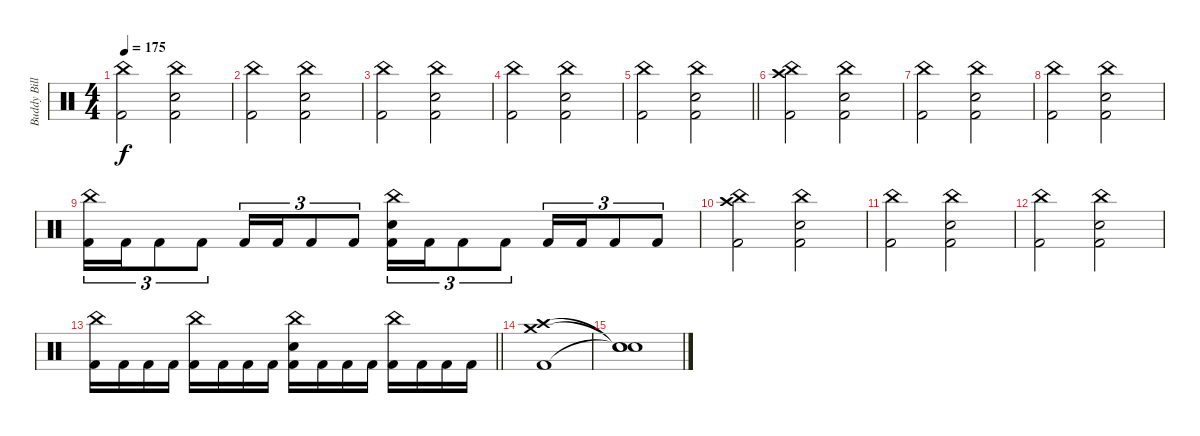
\track ("Buddy Bill" "Buddy Bill") {instrument percussion}
\staff {score}
\articulation defaults
\ts (4 4)
\tempo 175
\clef neutral
\ks c
("China (hit)" "Kick (hit) 2").2{dy f} ("China (hit)" "Snare (hit) 2" "Kick (hit) 2").2 |
("China (hit)" "Kick (hit) 2").2 ("China (hit)" "Snare (hit) 2" "Kick (hit) 2").2 |
("China (hit)" "Kick (hit) 2").2 ("China (hit)" "Snare (hit) 2" "Kick (hit) 2").2 |
("China (hit)" "Kick (hit) 2").2 ("China (hit)" "Snare (hit) 2" "Kick (hit) 2").2 |
\barLineRight lightlight
("China (hit)" "Kick (hit) 2").2 ("China (hit)" "Snare (hit) 2" "Kick (hit) 2").2 |
\section ("" "")
("China (hit)" "Crash high (hit)" "Kick (hit) 2").2 ("China (hit)" "Snare (hit) 2" "Kick (hit) 2").2 |
("China (hit)" "Kick (hit) 2").2 ("China (hit)" "Snare (hit) 2" "Kick (hit) 2").2 |
("China (hit)" "Kick (hit) 2").2 ("China (hit)" "Snare (hit) 2" "Kick (hit) 2").2 |
("China (hit)" "Kick (hit) 2").16{tu (3 2)} "Kick (hit) 2".16{tu (3 2)} "Kick (hit) 2".8{tu (3 2)} "Kick (hit) 2".8{tu (3 2)} "Kick (hit) 2".16{tu (3 2)} "Kick (hit) 2".16{tu (3 2)} "Kick (hit) 2".8{tu (3 2)} "Kick (hit) 2".8{tu (3 2)} ("China (hit)" "Snare (hit) 2" "Kick (hit) 2").16{tu (3 2)} "Kick (hit) 2".16{tu (3 2)} "Kick (hit) 2".8{tu (3 2)} "Kick (hit) 2".8{tu (3 2)} "Kick (hit) 2".16{tu (3 2)} "Kick (hit) 2".16{tu (3 2)} "Kick (hit) 2".8{tu (3 2)} "Kick (hit) 2".8{tu (3 2)} |
("China (hit)" "Crash high (hit)" "Kick (hit) 2").2 ("China (hit)" "Snare (hit) 2" "Kick (hit) 2").2 |
("China (hit)" "Kick (hit) 2").2 ("China (hit)" "Snare (hit) 2" "Kick (hit) 2").2 |
("China (hit)" "Kick (hit) 2").2 ("China (hit)" "Snare (hit) 2" "Kick (hit) 2").2 |
\barLineRight lightlight
("China (hit)" "Kick (hit) 2").16 "Kick (hit) 2".16 "Kick (hit) 2".16 "Kick (hit) 2".16 ("China (hit)" "Kick (hit) 2").16 "Kick (hit) 2".16 "Kick (hit) 2".16 "Kick (hit) 2".16 ("China (hit)" "Snare (hit) 2" "Kick (hit) 2").16 "Kick (hit) 2".16 "Kick (hit) 2".16 "Kick (hit) 2".16 ("China (hit)" "Kick (hit) 2").16 "Kick (hit) 2".16 "Kick (hit) 2".16 "Kick (hit) 2".16 |
("Crash medium (hit)" "Crash high (hit)" "Kick (hit) 2").1 |
("Snare (hit)"{t} "Snare (hit)"{t} "Snare (hit)"{t}).1
